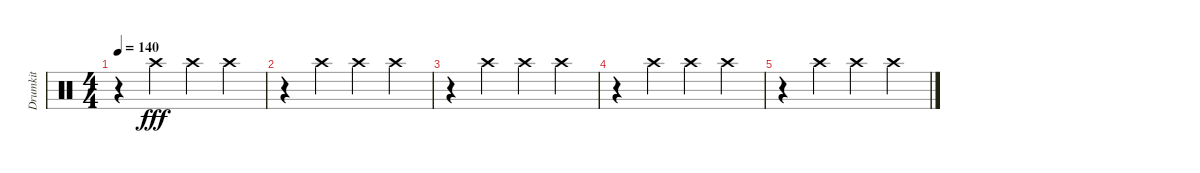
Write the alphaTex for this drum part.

\track ("Drumkit" "Drumkit") {instrument percussion}
\staff {score}
\articulation defaults
\ts (4 4)
\tempo 140
\clef neutral
\ks c
r.4{dy fff} "Crash high (hit)".4 "Crash high (hit)".4 "Crash high (hit)".4 |
r.4 "Crash high (hit)".4 "Crash high (hit)".4 "Crash high (hit)".4 |
r.4 "Crash high (hit)".4 "Crash high (hit)".4 "Crash high (hit)".4 |
r.4 "Crash high (hit)".4 "Crash high (hit)".4 "Crash high (hit)".4 |
r.4 "Crash high (hit)".4 "Crash high (hit)".4 "Crash high (hit)".4
